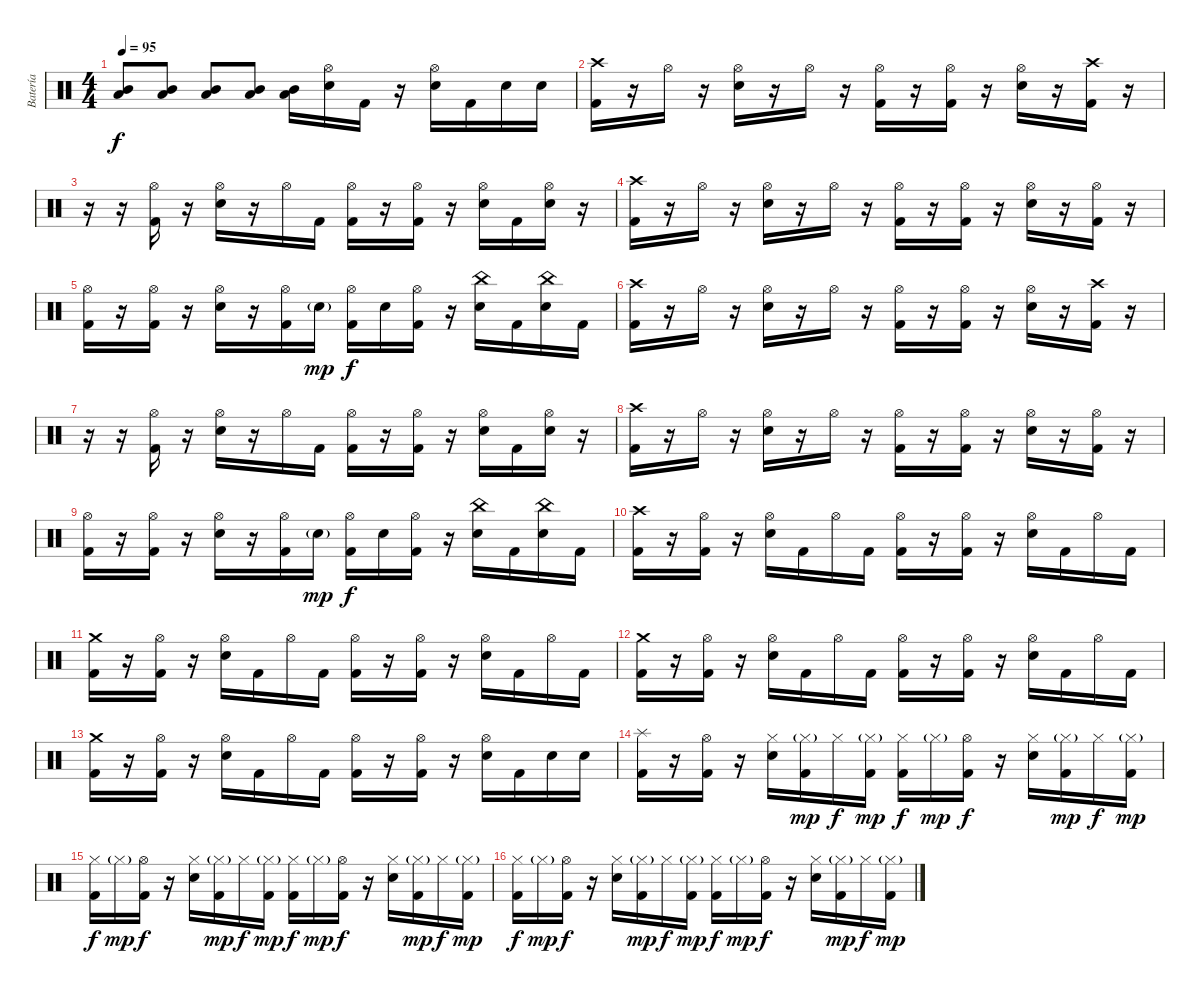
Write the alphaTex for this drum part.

\track ("Batería" "Batería") {instrument percussion}
\staff {score}
\articulation defaults
\ts (4 4)
\tempo 95
\clef neutral
\ks c
("Mid Tom (hit)" "Low Tom (hit)").8{dy f} ("Mid Tom (hit)" "Low Tom (hit)").8 ("Mid Tom (hit)" "Low Tom (hit)").8 ("Mid Tom (hit)" "Low Tom (hit)").8 ("Mid Tom (hit)" "Low Tom (hit)").16 ("Hi-Hat (open)" "Electric Snare (hit)").16 "Kick (hit) 2".16 r.16 ("Hi-Hat (open)" "Electric Snare (hit)").16 "Kick (hit) 2".16 "Electric Snare (hit)".16 "Electric Snare (hit)".16 |
("Crash high (hit)" "Kick (hit) 2").16 r.16 "Hi-Hat (open)".16 r.16 ("Hi-Hat (open)" "Electric Snare (hit)").16 r.16 "Hi-Hat (open)".16 r.16 ("Hi-Hat (open)" "Kick (hit) 2").16 r.16 ("Hi-Hat (open)" "Kick (hit) 2").16 r.16 ("Hi-Hat (open)" "Electric Snare (hit)").16 r.16 ("Crash high (hit)" "Kick (hit) 2").16 r.16 |
r.16 r.16 ("Hi-Hat (open)" "Kick (hit) 2").16 r.16 ("Hi-Hat (open)" "Electric Snare (hit)").16 r.16 "Hi-Hat (open)".16 "Kick (hit) 2".16 ("Hi-Hat (open)" "Kick (hit) 2").16 r.16 ("Hi-Hat (open)" "Kick (hit) 2").16 r.16 ("Hi-Hat (open)" "Electric Snare (hit)").16 "Kick (hit) 2".16 ("Hi-Hat (open)" "Electric Snare (hit)").16 r.16 |
("Crash high (hit)" "Kick (hit) 2").16 r.16 "Hi-Hat (open)".16 r.16 ("Hi-Hat (open)" "Electric Snare (hit)").16 r.16 "Hi-Hat (open)".16 r.16 ("Hi-Hat (open)" "Kick (hit) 2").16 r.16 ("Hi-Hat (open)" "Kick (hit) 2").16 r.16 ("Hi-Hat (open)" "Electric Snare (hit)").16 r.16 ("Hi-Hat (open)" "Kick (hit) 2").16 r.16 |
("Hi-Hat (open)" "Kick (hit) 2").16 r.16 ("Hi-Hat (open)" "Kick (hit) 2").16 r.16 ("Hi-Hat (open)" "Electric Snare (hit)").16 r.16 ("Hi-Hat (open)" "Kick (hit) 2").16 "Electric Snare (hit)"{g}.16{dy mp} ("Hi-Hat (open)" "Kick (hit) 2").16{dy f} "Electric Snare (hit)".16 ("Hi-Hat (open)" "Kick (hit) 2").16 r.16 ("China (hit)" "Electric Snare (hit)").16 "Kick (hit) 2".16 ("China (hit)" "Electric Snare (hit)").16 "Kick (hit) 2".16 |
("Crash high (hit)" "Kick (hit) 2").16 r.16 "Hi-Hat (open)".16 r.16 ("Hi-Hat (open)" "Electric Snare (hit)").16 r.16 "Hi-Hat (open)".16 r.16 ("Hi-Hat (open)" "Kick (hit) 2").16 r.16 ("Hi-Hat (open)" "Kick (hit) 2").16 r.16 ("Hi-Hat (open)" "Electric Snare (hit)").16 r.16 ("Crash high (hit)" "Kick (hit) 2").16 r.16 |
r.16 r.16 ("Hi-Hat (open)" "Kick (hit) 2").16 r.16 ("Hi-Hat (open)" "Electric Snare (hit)").16 r.16 "Hi-Hat (open)".16 "Kick (hit) 2".16 ("Hi-Hat (open)" "Kick (hit) 2").16 r.16 ("Hi-Hat (open)" "Kick (hit) 2").16 r.16 ("Hi-Hat (open)" "Electric Snare (hit)").16 "Kick (hit) 2".16 ("Hi-Hat (open)" "Electric Snare (hit)").16 r.16 |
("Crash high (hit)" "Kick (hit) 2").16 r.16 "Hi-Hat (open)".16 r.16 ("Hi-Hat (open)" "Electric Snare (hit)").16 r.16 "Hi-Hat (open)".16 r.16 ("Hi-Hat (open)" "Kick (hit) 2").16 r.16 ("Hi-Hat (open)" "Kick (hit) 2").16 r.16 ("Hi-Hat (open)" "Electric Snare (hit)").16 r.16 ("Hi-Hat (open)" "Kick (hit) 2").16 r.16 |
("Hi-Hat (open)" "Kick (hit) 2").16 r.16 ("Hi-Hat (open)" "Kick (hit) 2").16 r.16 ("Hi-Hat (open)" "Electric Snare (hit)").16 r.16 ("Hi-Hat (open)" "Kick (hit) 2").16 "Electric Snare (hit)"{g}.16{dy mp} ("Hi-Hat (open)" "Kick (hit) 2").16{dy f} "Electric Snare (hit)".16 ("Hi-Hat (open)" "Kick (hit) 2").16 r.16 ("China (hit)" "Electric Snare (hit)").16 "Kick (hit) 2".16 ("China (hit)" "Electric Snare (hit)").16 "Kick (hit) 2".16 |
("Crash high (hit)" "Kick (hit) 2").16 r.16 ("Hi-Hat (open)" "Kick (hit) 2").16 r.16 ("Hi-Hat (open)" "Electric Snare (hit)").16 "Kick (hit) 2".16 "Hi-Hat (open)".16 "Kick (hit) 2".16 ("Hi-Hat (open)" "Kick (hit) 2").16 r.16 ("Hi-Hat (open)" "Kick (hit) 2").16 r.16 ("Hi-Hat (open)" "Electric Snare (hit)").16 "Kick (hit) 2".16 "Hi-Hat (open)".16 "Kick (hit) 2".16 |
("Crash medium (hit)" "Kick (hit) 2").16 r.16 ("Hi-Hat (open)" "Kick (hit) 2").16 r.16 ("Hi-Hat (open)" "Electric Snare (hit)").16 "Kick (hit) 2".16 "Hi-Hat (open)".16 "Kick (hit) 2".16 ("Hi-Hat (open)" "Kick (hit) 2").16 r.16 ("Hi-Hat (open)" "Kick (hit) 2").16 r.16 ("Hi-Hat (open)" "Electric Snare (hit)").16 "Kick (hit) 2".16 "Hi-Hat (open)".16 "Kick (hit) 2".16 |
("Crash medium (hit)" "Kick (hit) 2").16 r.16 ("Hi-Hat (open)" "Kick (hit) 2").16 r.16 ("Hi-Hat (open)" "Electric Snare (hit)").16 "Kick (hit) 2".16 "Hi-Hat (open)".16 "Kick (hit) 2".16 ("Hi-Hat (open)" "Kick (hit) 2").16 r.16 ("Hi-Hat (open)" "Kick (hit) 2").16 r.16 ("Hi-Hat (open)" "Electric Snare (hit)").16 "Kick (hit) 2".16 "Hi-Hat (open)".16 "Kick (hit) 2".16 |
("Crash medium (hit)" "Kick (hit) 2").16 r.16 ("Hi-Hat (open)" "Kick (hit) 2").16 r.16 ("Hi-Hat (open)" "Electric Snare (hit)").16 "Kick (hit) 2".16 "Hi-Hat (open)".16 "Kick (hit) 2".16 ("Hi-Hat (open)" "Kick (hit) 2").16 r.16 ("Hi-Hat (open)" "Kick (hit) 2").16 r.16 ("Hi-Hat (open)" "Electric Snare (hit)").16 "Kick (hit) 2".16 "Electric Snare (hit)".16 "Electric Snare (hit)".16 |
("Splash (hit)" "Kick (hit) 2").16 r.16 ("Hi-Hat (open)" "Kick (hit) 2").16 r.16 ("Hi-Hat (closed)" "Electric Snare (hit)").16 ("Hi-Hat (closed)"{g} "Kick (hit) 2").16{dy mp} "Hi-Hat (closed)".16{dy f} ("Hi-Hat (closed)"{g} "Kick (hit) 2").16{dy mp} ("Hi-Hat (closed)" "Kick (hit) 2").16{dy f} "Hi-Hat (closed)"{g}.16{dy mp} ("Hi-Hat (open)" "Kick (hit) 2").16{dy f} r.16 ("Hi-Hat (closed)" "Electric Snare (hit)").16 ("Hi-Hat (closed)"{g} "Kick (hit) 2").16{dy mp} "Hi-Hat (closed)".16{dy f} ("Hi-Hat (closed)"{g} "Kick (hit) 2").16{dy mp} |
("Hi-Hat (closed)" "Kick (hit) 2").16{dy f} "Hi-Hat (closed)"{g}.16{dy mp} ("Hi-Hat (open)" "Kick (hit) 2").16{dy f} r.16 ("Hi-Hat (closed)" "Electric Snare (hit)").16 ("Hi-Hat (closed)"{g} "Kick (hit) 2").16{dy mp} "Hi-Hat (closed)".16{dy f} ("Hi-Hat (closed)"{g} "Kick (hit) 2").16{dy mp} ("Hi-Hat (closed)" "Kick (hit) 2").16{dy f} "Hi-Hat (closed)"{g}.16{dy mp} ("Hi-Hat (open)" "Kick (hit) 2").16{dy f} r.16 ("Hi-Hat (closed)" "Electric Snare (hit)").16 ("Hi-Hat (closed)"{g} "Kick (hit) 2").16{dy mp} "Hi-Hat (closed)".16{dy f} ("Hi-Hat (closed)"{g} "Kick (hit) 2").16{dy mp} |
("Hi-Hat (closed)" "Kick (hit) 2").16{dy f} "Hi-Hat (closed)"{g}.16{dy mp} ("Hi-Hat (open)" "Kick (hit) 2").16{dy f} r.16 ("Hi-Hat (closed)" "Electric Snare (hit)").16 ("Hi-Hat (closed)"{g} "Kick (hit) 2").16{dy mp} "Hi-Hat (closed)".16{dy f} ("Hi-Hat (closed)"{g} "Kick (hit) 2").16{dy mp} ("Hi-Hat (closed)" "Kick (hit) 2").16{dy f} "Hi-Hat (closed)"{g}.16{dy mp} ("Hi-Hat (open)" "Kick (hit) 2").16{dy f} r.16 ("Hi-Hat (closed)" "Electric Snare (hit)").16 ("Hi-Hat (closed)"{g} "Kick (hit) 2").16{dy mp} "Hi-Hat (closed)".16{dy f} ("Hi-Hat (closed)"{g} "Kick (hit) 2").16{dy mp}
